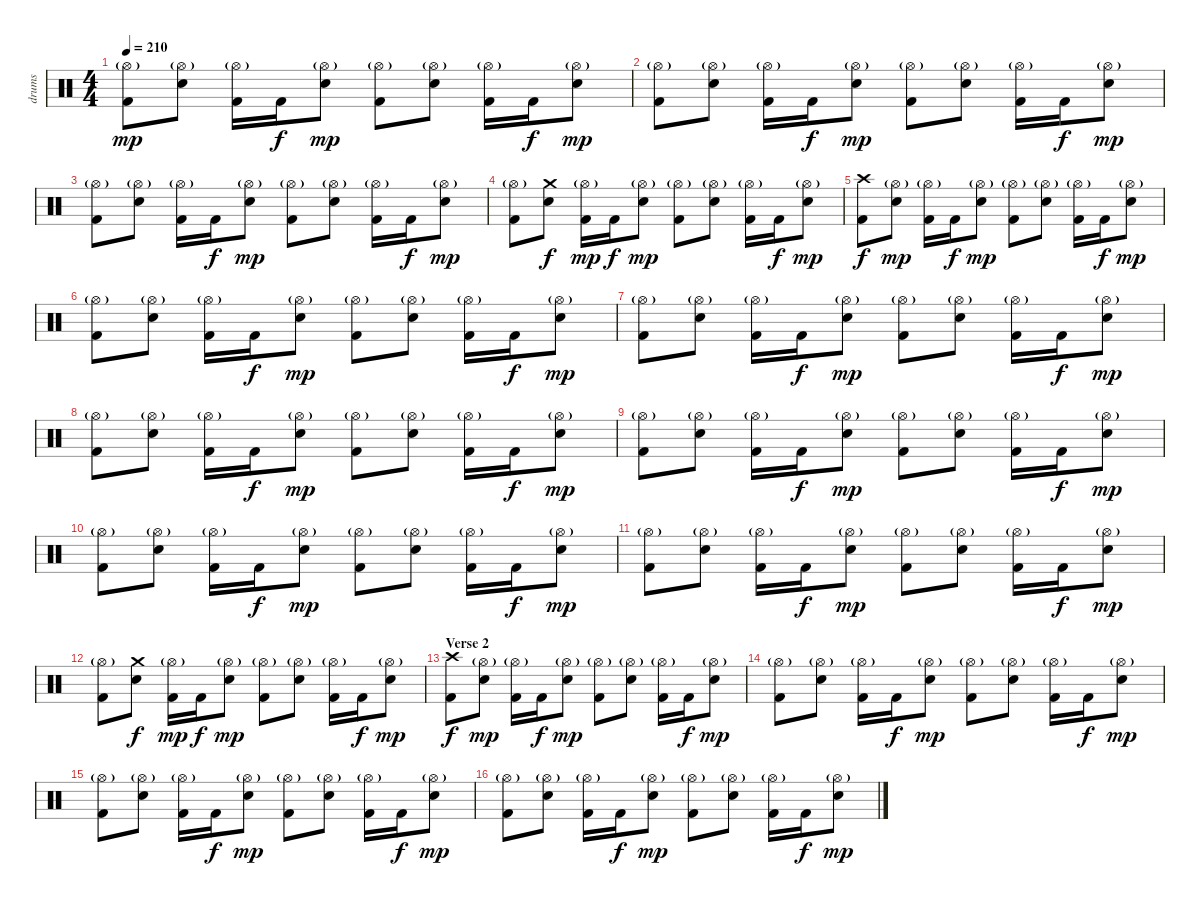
\track ("drums" "drums") {instrument percussion}
\staff {score}
\articulation defaults
\ts (4 4)
\tempo 210
\clef neutral
\ks c
("Hi-Hat (open)"{g} "Kick (hit) 2").8{dy mp} ("Hi-Hat (open)"{g} "Electric Snare (hit)").8 ("Hi-Hat (open)"{g} "Kick (hit) 2").16 "Kick (hit) 2".16{dy f} ("Hi-Hat (open)"{g} "Electric Snare (hit)").8{dy mp} ("Hi-Hat (open)"{g} "Kick (hit) 2").8 ("Hi-Hat (open)"{g} "Electric Snare (hit)").8 ("Hi-Hat (open)"{g} "Kick (hit) 2").16 "Kick (hit) 2".16{dy f} ("Hi-Hat (open)"{g} "Electric Snare (hit)").8{dy mp} |
("Hi-Hat (open)"{g} "Kick (hit) 2").8 ("Hi-Hat (open)"{g} "Electric Snare (hit)").8 ("Hi-Hat (open)"{g} "Kick (hit) 2").16 "Kick (hit) 2".16{dy f} ("Hi-Hat (open)"{g} "Electric Snare (hit)").8{dy mp} ("Hi-Hat (open)"{g} "Kick (hit) 2").8 ("Hi-Hat (open)"{g} "Electric Snare (hit)").8 ("Hi-Hat (open)"{g} "Kick (hit) 2").16 "Kick (hit) 2".16{dy f} ("Hi-Hat (open)"{g} "Electric Snare (hit)").8{dy mp} |
("Hi-Hat (open)"{g} "Kick (hit) 2").8 ("Hi-Hat (open)"{g} "Electric Snare (hit)").8 ("Hi-Hat (open)"{g} "Kick (hit) 2").16 "Kick (hit) 2".16{dy f} ("Hi-Hat (open)"{g} "Electric Snare (hit)").8{dy mp} ("Hi-Hat (open)"{g} "Kick (hit) 2").8 ("Hi-Hat (open)"{g} "Electric Snare (hit)").8 ("Hi-Hat (open)"{g} "Kick (hit) 2").16 "Kick (hit) 2".16{dy f} ("Hi-Hat (open)"{g} "Electric Snare (hit)").8{dy mp} |
("Hi-Hat (open)"{g} "Kick (hit) 2").8 ("Crash medium (hit)" "Electric Snare (hit)").8{dy f} ("Hi-Hat (open)"{g} "Kick (hit) 2").16{dy mp} "Kick (hit) 2".16{dy f} ("Hi-Hat (open)"{g} "Electric Snare (hit)").8{dy mp} ("Hi-Hat (open)"{g} "Kick (hit) 2").8 ("Hi-Hat (open)"{g} "Electric Snare (hit)").8 ("Hi-Hat (open)"{g} "Kick (hit) 2").16 "Kick (hit) 2".16{dy f} ("Hi-Hat (open)"{g} "Electric Snare (hit)").8{dy mp} |
("Crash high (hit)" "Kick (hit) 2").8{dy f} ("Hi-Hat (open)"{g} "Electric Snare (hit)").8{dy mp} ("Hi-Hat (open)"{g} "Kick (hit) 2").16 "Kick (hit) 2".16{dy f} ("Hi-Hat (open)"{g} "Electric Snare (hit)").8{dy mp} ("Hi-Hat (open)"{g} "Kick (hit) 2").8 ("Hi-Hat (open)"{g} "Electric Snare (hit)").8 ("Hi-Hat (open)"{g} "Kick (hit) 2").16 "Kick (hit) 2".16{dy f} ("Hi-Hat (open)"{g} "Electric Snare (hit)").8{dy mp} |
("Hi-Hat (open)"{g} "Kick (hit) 2").8 ("Hi-Hat (open)"{g} "Electric Snare (hit)").8 ("Hi-Hat (open)"{g} "Kick (hit) 2").16 "Kick (hit) 2".16{dy f} ("Hi-Hat (open)"{g} "Electric Snare (hit)").8{dy mp} ("Hi-Hat (open)"{g} "Kick (hit) 2").8 ("Hi-Hat (open)"{g} "Electric Snare (hit)").8 ("Hi-Hat (open)"{g} "Kick (hit) 2").16 "Kick (hit) 2".16{dy f} ("Hi-Hat (open)"{g} "Electric Snare (hit)").8{dy mp} |
("Hi-Hat (open)"{g} "Kick (hit) 2").8 ("Hi-Hat (open)"{g} "Electric Snare (hit)").8 ("Hi-Hat (open)"{g} "Kick (hit) 2").16 "Kick (hit) 2".16{dy f} ("Hi-Hat (open)"{g} "Electric Snare (hit)").8{dy mp} ("Hi-Hat (open)"{g} "Kick (hit) 2").8 ("Hi-Hat (open)"{g} "Electric Snare (hit)").8 ("Hi-Hat (open)"{g} "Kick (hit) 2").16 "Kick (hit) 2".16{dy f} ("Hi-Hat (open)"{g} "Electric Snare (hit)").8{dy mp} |
("Hi-Hat (open)"{g} "Kick (hit) 2").8 ("Hi-Hat (open)"{g} "Electric Snare (hit)").8 ("Hi-Hat (open)"{g} "Kick (hit) 2").16 "Kick (hit) 2".16{dy f} ("Hi-Hat (open)"{g} "Electric Snare (hit)").8{dy mp} ("Hi-Hat (open)"{g} "Kick (hit) 2").8 ("Hi-Hat (open)"{g} "Electric Snare (hit)").8 ("Hi-Hat (open)"{g} "Kick (hit) 2").16 "Kick (hit) 2".16{dy f} ("Hi-Hat (open)"{g} "Electric Snare (hit)").8{dy mp} |
("Hi-Hat (open)"{g} "Kick (hit) 2").8 ("Hi-Hat (open)"{g} "Electric Snare (hit)").8 ("Hi-Hat (open)"{g} "Kick (hit) 2").16 "Kick (hit) 2".16{dy f} ("Hi-Hat (open)"{g} "Electric Snare (hit)").8{dy mp} ("Hi-Hat (open)"{g} "Kick (hit) 2").8 ("Hi-Hat (open)"{g} "Electric Snare (hit)").8 ("Hi-Hat (open)"{g} "Kick (hit) 2").16 "Kick (hit) 2".16{dy f} ("Hi-Hat (open)"{g} "Electric Snare (hit)").8{dy mp} |
("Hi-Hat (open)"{g} "Kick (hit) 2").8 ("Hi-Hat (open)"{g} "Electric Snare (hit)").8 ("Hi-Hat (open)"{g} "Kick (hit) 2").16 "Kick (hit) 2".16{dy f} ("Hi-Hat (open)"{g} "Electric Snare (hit)").8{dy mp} ("Hi-Hat (open)"{g} "Kick (hit) 2").8 ("Hi-Hat (open)"{g} "Electric Snare (hit)").8 ("Hi-Hat (open)"{g} "Kick (hit) 2").16 "Kick (hit) 2".16{dy f} ("Hi-Hat (open)"{g} "Electric Snare (hit)").8{dy mp} |
("Hi-Hat (open)"{g} "Kick (hit) 2").8 ("Hi-Hat (open)"{g} "Electric Snare (hit)").8 ("Hi-Hat (open)"{g} "Kick (hit) 2").16 "Kick (hit) 2".16{dy f} ("Hi-Hat (open)"{g} "Electric Snare (hit)").8{dy mp} ("Hi-Hat (open)"{g} "Kick (hit) 2").8 ("Hi-Hat (open)"{g} "Electric Snare (hit)").8 ("Hi-Hat (open)"{g} "Kick (hit) 2").16 "Kick (hit) 2".16{dy f} ("Hi-Hat (open)"{g} "Electric Snare (hit)").8{dy mp} |
("Hi-Hat (open)"{g} "Kick (hit) 2").8 ("Crash medium (hit)" "Electric Snare (hit)").8{dy f} ("Hi-Hat (open)"{g} "Kick (hit) 2").16{dy mp} "Kick (hit) 2".16{dy f} ("Hi-Hat (open)"{g} "Electric Snare (hit)").8{dy mp} ("Hi-Hat (open)"{g} "Kick (hit) 2").8 ("Hi-Hat (open)"{g} "Electric Snare (hit)").8 ("Hi-Hat (open)"{g} "Kick (hit) 2").16 "Kick (hit) 2".16{dy f} ("Hi-Hat (open)"{g} "Electric Snare (hit)").8{dy mp} |
\section ("" "Verse 2")
("Crash high (hit)" "Kick (hit) 2").8{dy f} ("Hi-Hat (open)"{g} "Electric Snare (hit)").8{dy mp} ("Hi-Hat (open)"{g} "Kick (hit) 2").16 "Kick (hit) 2".16{dy f} ("Hi-Hat (open)"{g} "Electric Snare (hit)").8{dy mp} ("Hi-Hat (open)"{g} "Kick (hit) 2").8 ("Hi-Hat (open)"{g} "Electric Snare (hit)").8 ("Hi-Hat (open)"{g} "Kick (hit) 2").16 "Kick (hit) 2".16{dy f} ("Hi-Hat (open)"{g} "Electric Snare (hit)").8{dy mp} |
("Hi-Hat (open)"{g} "Kick (hit) 2").8 ("Hi-Hat (open)"{g} "Electric Snare (hit)").8 ("Hi-Hat (open)"{g} "Kick (hit) 2").16 "Kick (hit) 2".16{dy f} ("Hi-Hat (open)"{g} "Electric Snare (hit)").8{dy mp} ("Hi-Hat (open)"{g} "Kick (hit) 2").8 ("Hi-Hat (open)"{g} "Electric Snare (hit)").8 ("Hi-Hat (open)"{g} "Kick (hit) 2").16 "Kick (hit) 2".16{dy f} ("Hi-Hat (open)"{g} "Electric Snare (hit)").8{dy mp} |
("Hi-Hat (open)"{g} "Kick (hit) 2").8 ("Hi-Hat (open)"{g} "Electric Snare (hit)").8 ("Hi-Hat (open)"{g} "Kick (hit) 2").16 "Kick (hit) 2".16{dy f} ("Hi-Hat (open)"{g} "Electric Snare (hit)").8{dy mp} ("Hi-Hat (open)"{g} "Kick (hit) 2").8 ("Hi-Hat (open)"{g} "Electric Snare (hit)").8 ("Hi-Hat (open)"{g} "Kick (hit) 2").16 "Kick (hit) 2".16{dy f} ("Hi-Hat (open)"{g} "Electric Snare (hit)").8{dy mp} |
("Hi-Hat (open)"{g} "Kick (hit) 2").8 ("Hi-Hat (open)"{g} "Electric Snare (hit)").8 ("Hi-Hat (open)"{g} "Kick (hit) 2").16 "Kick (hit) 2".16{dy f} ("Hi-Hat (open)"{g} "Electric Snare (hit)").8{dy mp} ("Hi-Hat (open)"{g} "Kick (hit) 2").8 ("Hi-Hat (open)"{g} "Electric Snare (hit)").8 ("Hi-Hat (open)"{g} "Kick (hit) 2").16 "Kick (hit) 2".16{dy f} ("Hi-Hat (open)"{g} "Electric Snare (hit)").8{dy mp}
